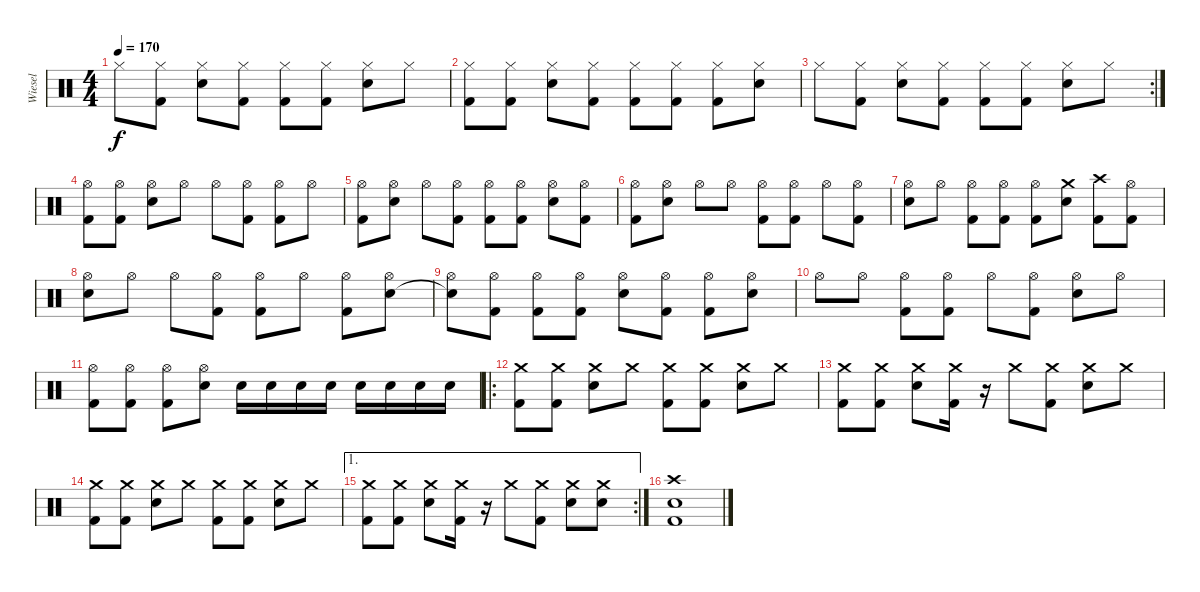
\track ("Wiesel" "Wiesel") {instrument percussion}
\staff {score}
\articulation defaults
\ts (4 4)
\tempo 170
\clef neutral
\ks c "Hi-Hat (closed)".8{dy f}
("Hi-Hat (closed)" "Kick (hit) 2").8 ("Hi-Hat (closed)" "Snare (hit) 2").8 ("Hi-Hat (closed)" "Kick (hit) 2").8 ("Hi-Hat (closed)" "Kick (hit) 2").8 ("Hi-Hat (closed)" "Kick (hit) 2").8 ("Hi-Hat (closed)" "Snare (hit) 2").8 "Hi-Hat (closed)".8 |
("Hi-Hat (closed)" "Kick (hit) 2").8 ("Hi-Hat (closed)" "Kick (hit) 2").8 ("Hi-Hat (closed)" "Snare (hit) 2").8 ("Hi-Hat (closed)" "Kick (hit) 2").8 ("Hi-Hat (closed)" "Kick (hit) 2").8 ("Hi-Hat (closed)" "Kick (hit) 2").8 ("Hi-Hat (closed)" "Kick (hit) 2").8 ("Hi-Hat (closed)" "Snare (hit) 2").8 |
\rc 2 "Hi-Hat (closed)".8
("Hi-Hat (closed)" "Kick (hit) 2").8 ("Hi-Hat (closed)" "Snare (hit) 2").8 ("Hi-Hat (closed)" "Kick (hit) 2").8 ("Hi-Hat (closed)" "Kick (hit) 2").8 ("Hi-Hat (closed)" "Kick (hit) 2").8 ("Hi-Hat (closed)" "Snare (hit) 2").8 "Hi-Hat (closed)".8 |
("Hi-Hat (open)" "Kick (hit) 2").8 ("Hi-Hat (open)" "Kick (hit) 2").8 ("Hi-Hat (open)" "Snare (hit) 2").8 "Hi-Hat (open)".8 "Hi-Hat (open)".8 ("Hi-Hat (open)" "Kick (hit) 2").8 ("Hi-Hat (open)" "Kick (hit) 2").8 "Hi-Hat (open)".8 |
("Hi-Hat (open)" "Kick (hit) 2").8 ("Hi-Hat (open)" "Snare (hit) 2").8 "Hi-Hat (open)".8 ("Hi-Hat (open)" "Kick (hit) 2").8 ("Hi-Hat (open)" "Kick (hit) 2").8 ("Hi-Hat (open)" "Kick (hit) 2").8 ("Hi-Hat (open)" "Snare (hit) 2").8 ("Hi-Hat (open)" "Kick (hit) 2").8 |
("Hi-Hat (open)" "Kick (hit) 2").8 ("Hi-Hat (open)" "Snare (hit) 2").8 "Hi-Hat (open)".8 "Hi-Hat (open)".8 ("Hi-Hat (open)" "Kick (hit) 2").8 ("Hi-Hat (open)" "Kick (hit) 2").8 "Hi-Hat (open)".8 ("Hi-Hat (open)" "Kick (hit) 2").8 |
("Hi-Hat (open)" "Snare (hit) 2").8 "Hi-Hat (open)".8 ("Hi-Hat (open)" "Kick (hit) 2").8 ("Hi-Hat (open)" "Kick (hit) 2").8 ("Hi-Hat (open)" "Kick (hit) 2").8 ("Crash medium (hit)" "Snare (hit) 2").8 ("Crash high (hit)" "Kick (hit) 2").8 ("Hi-Hat (open)" "Kick (hit) 2").8 |
("Hi-Hat (open)" "Snare (hit) 2").8 "Hi-Hat (open)".8 "Hi-Hat (open)".8 ("Hi-Hat (open)" "Kick (hit) 2").8 ("Hi-Hat (open)" "Kick (hit) 2").8 "Hi-Hat (open)".8 ("Hi-Hat (open)" "Kick (hit) 2").8 ("Hi-Hat (open)" "Snare (hit) 2").8 |
("Hi-Hat (open)" "Snare (hit) 2"{t}).8 ("Hi-Hat (open)" "Kick (hit) 2").8 ("Hi-Hat (open)" "Kick (hit) 2").8 ("Hi-Hat (open)" "Kick (hit) 2").8 ("Hi-Hat (open)" "Snare (hit) 2").8 ("Hi-Hat (open)" "Kick (hit) 2").8 ("Hi-Hat (open)" "Kick (hit) 2").8 ("Hi-Hat (open)" "Snare (hit) 2").8 |
"Hi-Hat (open)".8 "Hi-Hat (open)".8 ("Hi-Hat (open)" "Kick (hit) 2").8 ("Hi-Hat (open)" "Kick (hit) 2").8 "Hi-Hat (open)".8 ("Hi-Hat (open)" "Kick (hit) 2").8 ("Hi-Hat (open)" "Snare (hit) 2").8 "Hi-Hat (open)".8 |
("Hi-Hat (open)" "Kick (hit) 2").8 ("Hi-Hat (open)" "Kick (hit) 2").8 ("Hi-Hat (open)" "Kick (hit) 2").8 ("Hi-Hat (open)" "Snare (hit) 2").8 "Snare (hit) 2".16 "Snare (hit) 2".16 "Snare (hit) 2".16 "Snare (hit) 2".16 "Snare (hit) 2".16 "Snare (hit) 2".16 "Snare (hit) 2".16 "Snare (hit) 2".16 |
\ro
("Crash medium (hit)" "Kick (hit) 2").8 ("Crash medium (hit)" "Kick (hit) 2").8 ("Crash medium (hit)" "Snare (hit) 2").8 "Crash medium (hit)".8 ("Crash medium (hit)" "Kick (hit) 2").8 ("Crash medium (hit)" "Kick (hit) 2").8 ("Crash medium (hit)" "Snare (hit) 2").8 "Crash medium (hit)".8 |
("Crash medium (hit)" "Kick (hit) 2").8 ("Crash medium (hit)" "Kick (hit) 2").8 ("Crash medium (hit)" "Snare (hit) 2").8 ("Crash medium (hit)" "Kick (hit) 2").16 r.16 "Crash medium (hit)".8 ("Crash medium (hit)" "Kick (hit) 2").8 ("Crash medium (hit)" "Snare (hit) 2").8 "Crash medium (hit)".8 |
("Crash medium (hit)" "Kick (hit) 2").8 ("Crash medium (hit)" "Kick (hit) 2").8 ("Crash medium (hit)" "Snare (hit) 2").8 "Crash medium (hit)".8 ("Crash medium (hit)" "Kick (hit) 2").8 ("Crash medium (hit)" "Kick (hit) 2").8 ("Crash medium (hit)" "Snare (hit) 2").8 "Crash medium (hit)".8 |
\ae 1
\rc 2
("Crash medium (hit)" "Kick (hit) 2").8 ("Crash medium (hit)" "Kick (hit) 2").8 ("Crash medium (hit)" "Snare (hit) 2").8 ("Crash medium (hit)" "Kick (hit) 2").16 r.16 "Crash medium (hit)".8 ("Crash medium (hit)" "Kick (hit) 2").8 ("Crash medium (hit)" "Snare (hit) 2").8 ("Crash medium (hit)" "Snare (hit) 2").8 |
("Crash high (hit)" "Snare (hit) 2" "Kick (hit) 2").1
